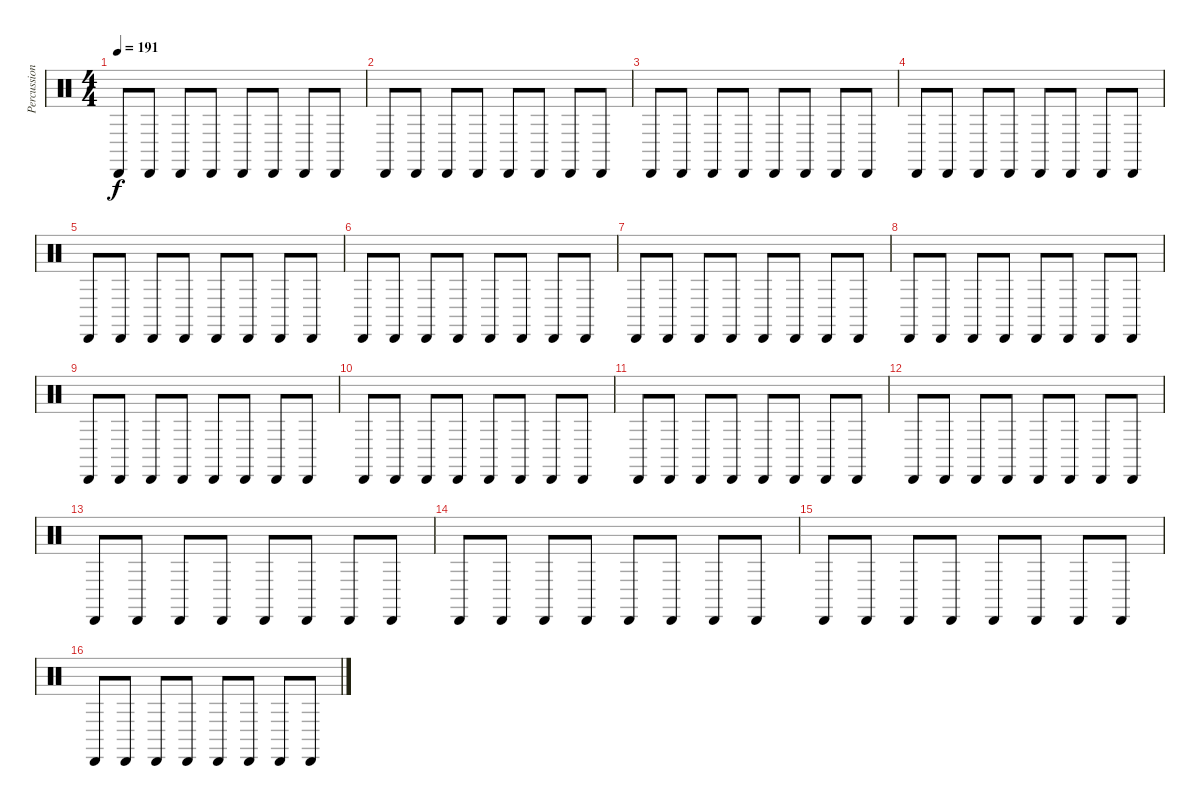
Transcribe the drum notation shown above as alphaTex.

\track ("Percussion" "Percussion") {instrument percussion}
\staff {score}
\articulation defaults
\ts (4 4)
\tempo 191
\clef neutral
\ks c "Cabasa (hit)".8{dy f} "Cabasa (hit)".8 "Cabasa (hit)".8 "Cabasa (hit)".8 "Cabasa (hit)".8 "Cabasa (hit)".8 "Cabasa (hit)".8 "Cabasa (hit)".8
|
"Cabasa (hit)".8 "Cabasa (hit)".8 "Cabasa (hit)".8 "Cabasa (hit)".8 "Cabasa (hit)".8 "Cabasa (hit)".8 "Cabasa (hit)".8 "Cabasa (hit)".8 |
"Cabasa (hit)".8 "Cabasa (hit)".8 "Cabasa (hit)".8 "Cabasa (hit)".8 "Cabasa (hit)".8 "Cabasa (hit)".8 "Cabasa (hit)".8 "Cabasa (hit)".8 |
"Cabasa (hit)".8 "Cabasa (hit)".8 "Cabasa (hit)".8 "Cabasa (hit)".8 "Cabasa (hit)".8 "Cabasa (hit)".8 "Cabasa (hit)".8 "Cabasa (hit)".8 |
"Cabasa (hit)".8 "Cabasa (hit)".8 "Cabasa (hit)".8 "Cabasa (hit)".8 "Cabasa (hit)".8 "Cabasa (hit)".8 "Cabasa (hit)".8 "Cabasa (hit)".8 |
"Cabasa (hit)".8 "Cabasa (hit)".8 "Cabasa (hit)".8 "Cabasa (hit)".8 "Cabasa (hit)".8 "Cabasa (hit)".8 "Cabasa (hit)".8 "Cabasa (hit)".8 |
"Cabasa (hit)".8 "Cabasa (hit)".8 "Cabasa (hit)".8 "Cabasa (hit)".8 "Cabasa (hit)".8 "Cabasa (hit)".8 "Cabasa (hit)".8 "Cabasa (hit)".8 |
"Cabasa (hit)".8 "Cabasa (hit)".8 "Cabasa (hit)".8 "Cabasa (hit)".8 "Cabasa (hit)".8 "Cabasa (hit)".8 "Cabasa (hit)".8 "Cabasa (hit)".8 |
"Cabasa (hit)".8 "Cabasa (hit)".8 "Cabasa (hit)".8 "Cabasa (hit)".8 "Cabasa (hit)".8 "Cabasa (hit)".8 "Cabasa (hit)".8 "Cabasa (hit)".8 |
"Cabasa (hit)".8 "Cabasa (hit)".8 "Cabasa (hit)".8 "Cabasa (hit)".8 "Cabasa (hit)".8 "Cabasa (hit)".8 "Cabasa (hit)".8 "Cabasa (hit)".8 |
"Cabasa (hit)".8 "Cabasa (hit)".8 "Cabasa (hit)".8 "Cabasa (hit)".8 "Cabasa (hit)".8 "Cabasa (hit)".8 "Cabasa (hit)".8 "Cabasa (hit)".8 |
"Cabasa (hit)".8 "Cabasa (hit)".8 "Cabasa (hit)".8 "Cabasa (hit)".8 "Cabasa (hit)".8 "Cabasa (hit)".8 "Cabasa (hit)".8 "Cabasa (hit)".8 |
"Cabasa (hit)".8 "Cabasa (hit)".8 "Cabasa (hit)".8 "Cabasa (hit)".8 "Cabasa (hit)".8 "Cabasa (hit)".8 "Cabasa (hit)".8 "Cabasa (hit)".8 |
"Cabasa (hit)".8 "Cabasa (hit)".8 "Cabasa (hit)".8 "Cabasa (hit)".8 "Cabasa (hit)".8 "Cabasa (hit)".8 "Cabasa (hit)".8 "Cabasa (hit)".8 |
"Cabasa (hit)".8 "Cabasa (hit)".8 "Cabasa (hit)".8 "Cabasa (hit)".8 "Cabasa (hit)".8 "Cabasa (hit)".8 "Cabasa (hit)".8 "Cabasa (hit)".8 |
"Cabasa (hit)".8 "Cabasa (hit)".8 "Cabasa (hit)".8 "Cabasa (hit)".8 "Cabasa (hit)".8 "Cabasa (hit)".8 "Cabasa (hit)".8 "Cabasa (hit)".8
